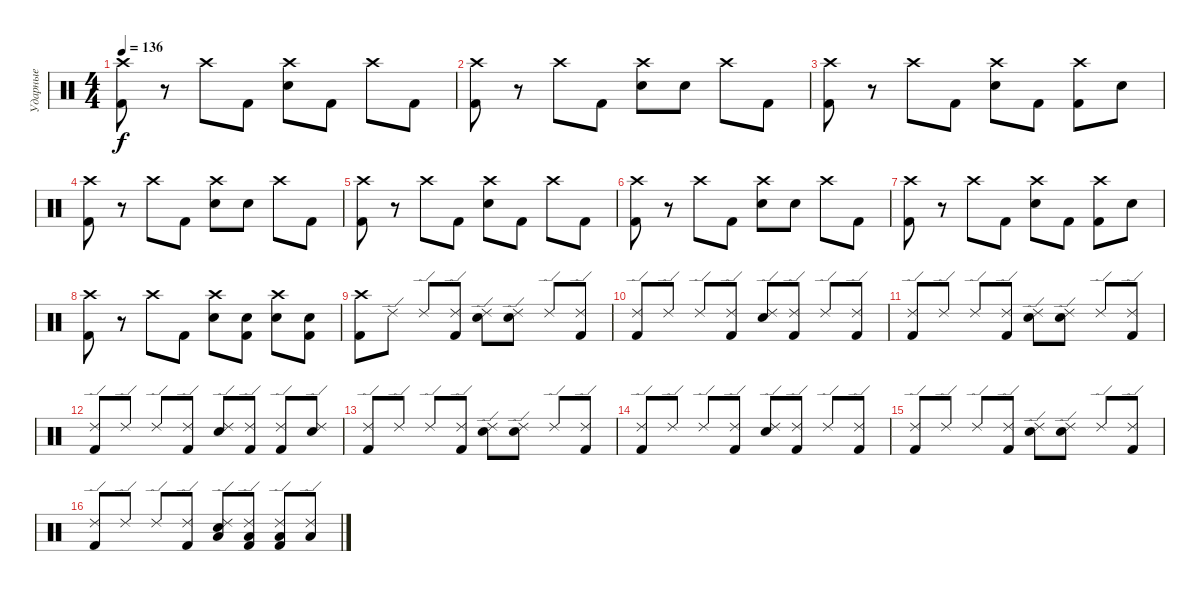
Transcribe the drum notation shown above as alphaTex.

\track ("Ударные" "Ударные") {instrument percussion}
\staff {score}
\articulation defaults
\ts (4 4)
\tempo 136
\clef neutral
\ks c
("Crash high (hit)" "Kick (hit) 2").8{dy f} r.8 "Crash high (hit)".8 "Kick (hit) 2".8 ("Crash high (hit)" "Snare (hit) 2").8 "Kick (hit) 2".8 "Crash high (hit)".8 "Kick (hit) 2".8 |
("Crash high (hit)" "Kick (hit) 2").8 r.8 "Crash high (hit)".8 "Kick (hit) 2".8 ("Crash high (hit)" "Snare (hit) 2").8 "Snare (hit) 2".8 "Crash high (hit)".8 "Kick (hit) 2".8 |
("Crash high (hit)" "Kick (hit) 2").8 r.8 "Crash high (hit)".8 "Kick (hit) 2".8 ("Crash high (hit)" "Snare (hit) 2").8 "Kick (hit) 2".8 ("Crash high (hit)" "Kick (hit) 2").8 "Snare (hit) 2".8 |
("Crash high (hit)" "Kick (hit) 2").8 r.8 "Crash high (hit)".8 "Kick (hit) 2".8 ("Crash high (hit)" "Snare (hit) 2").8 "Snare (hit) 2".8 "Crash high (hit)".8 "Kick (hit) 2".8 |
("Crash high (hit)" "Kick (hit) 2").8 r.8 "Crash high (hit)".8 "Kick (hit) 2".8 ("Crash high (hit)" "Snare (hit) 2").8 "Kick (hit) 2".8 "Crash high (hit)".8 "Kick (hit) 2".8 |
("Crash high (hit)" "Kick (hit) 2").8 r.8 "Crash high (hit)".8 "Kick (hit) 2".8 ("Crash high (hit)" "Snare (hit) 2").8 "Snare (hit) 2".8 "Crash high (hit)".8 "Kick (hit) 2".8 |
("Crash high (hit)" "Kick (hit) 2").8 r.8 "Crash high (hit)".8 "Kick (hit) 2".8 ("Crash high (hit)" "Snare (hit) 2").8 "Kick (hit) 2".8 ("Crash high (hit)" "Kick (hit) 2").8 "Snare (hit) 2".8 |
("Crash high (hit)" "Kick (hit) 2").8 r.8 "Crash high (hit)".8 "Kick (hit) 2".8 ("Crash high (hit)" "Snare (hit) 2").8 ("Snare (hit) 2" "Kick (hit) 2").8 ("Crash high (hit)" "Snare (hit) 2").8 ("Snare (hit) 2" "Kick (hit) 2").8 |
("Crash high (hit)" "Kick (hit) 2").8 "Ride (edge) 2".8 "Ride (edge) 2".8 ("Ride (edge) 2" "Kick (hit) 2").8 ("Ride (edge) 2" "Snare (hit) 2").8 ("Ride (edge) 2" "Snare (hit) 2").8 "Ride (edge) 2".8 ("Ride (edge) 2" "Kick (hit) 2").8 |
("Ride (edge) 2" "Kick (hit) 2").8 "Ride (edge) 2".8 "Ride (edge) 2".8 ("Ride (edge) 2" "Kick (hit) 2").8 ("Ride (edge) 2" "Snare (hit) 2").8 ("Ride (edge) 2" "Kick (hit) 2").8 "Ride (edge) 2".8 ("Ride (edge) 2" "Kick (hit) 2").8 |
("Ride (edge) 2" "Kick (hit) 2").8 "Ride (edge) 2".8 "Ride (edge) 2".8 ("Ride (edge) 2" "Kick (hit) 2").8 ("Ride (edge) 2" "Snare (hit) 2").8 ("Ride (edge) 2" "Snare (hit) 2").8 "Ride (edge) 2".8 ("Ride (edge) 2" "Kick (hit) 2").8 |
("Ride (edge) 2" "Kick (hit) 2").8 "Ride (edge) 2".8 "Ride (edge) 2".8 ("Ride (edge) 2" "Kick (hit) 2").8 ("Ride (edge) 2" "Snare (hit) 2").8 ("Ride (edge) 2" "Kick (hit) 2").8 ("Ride (edge) 2" "Kick (hit) 2").8 ("Ride (edge) 2" "Snare (hit) 2").8 |
("Ride (edge) 2" "Kick (hit) 2").8 "Ride (edge) 2".8 "Ride (edge) 2".8 ("Ride (edge) 2" "Kick (hit) 2").8 ("Ride (edge) 2" "Snare (hit) 2").8 ("Ride (edge) 2" "Snare (hit) 2").8 "Ride (edge) 2".8 ("Ride (edge) 2" "Kick (hit) 2").8 |
("Ride (edge) 2" "Kick (hit) 2").8 "Ride (edge) 2".8 "Ride (edge) 2".8 ("Ride (edge) 2" "Kick (hit) 2").8 ("Ride (edge) 2" "Snare (hit) 2").8 ("Ride (edge) 2" "Kick (hit) 2").8 "Ride (edge) 2".8 ("Ride (edge) 2" "Kick (hit) 2").8 |
("Ride (edge) 2" "Kick (hit) 2").8 "Ride (edge) 2".8 "Ride (edge) 2".8 ("Ride (edge) 2" "Kick (hit) 2").8 ("Ride (edge) 2" "Snare (hit) 2").8 ("Ride (edge) 2" "Snare (hit) 2").8 "Ride (edge) 2".8 ("Ride (edge) 2" "Kick (hit) 2").8 |
("Ride (edge) 2" "Kick (hit) 2").8 "Ride (edge) 2".8 "Ride (edge) 2".8 ("Ride (edge) 2" "Kick (hit) 2").8 ("Ride (edge) 2" "Snare (hit) 2" "Low Tom (hit)").8 ("Ride (edge) 2" "Low Tom (hit)" "Kick (hit) 2").8 ("Ride (edge) 2" "Low Tom (hit)" "Kick (hit) 2").8 ("Ride (edge) 2" "Low Tom (hit)").8
